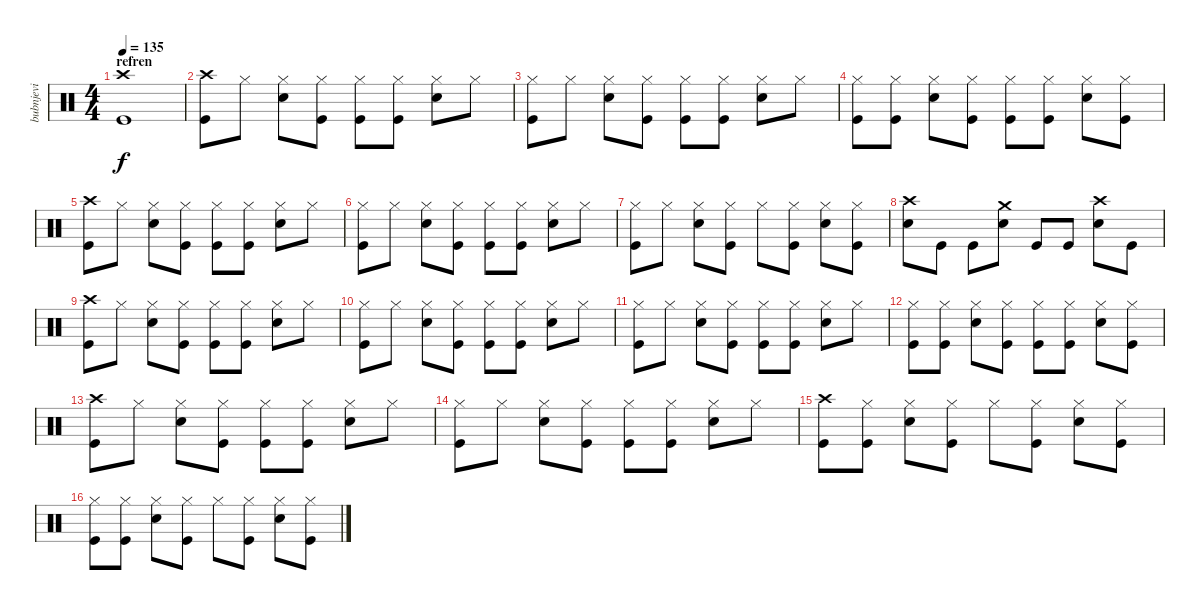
\track ("bubnjevi" "bubnjevi") {instrument percussion}
\staff {score}
\articulation defaults
\ts (4 4)
\section ("" "refren")
\tempo 135
\clef neutral
\ks c
("Crash high (hit)" "Kick (hit)").1{dy f} |
("Crash high (hit)" "Kick (hit)").8 "Hi-Hat (closed)".8 ("Hi-Hat (closed)" "Electric Snare (hit)").8 ("Hi-Hat (closed)" "Kick (hit)").8 ("Hi-Hat (closed)" "Kick (hit)").8 ("Hi-Hat (closed)" "Kick (hit)").8 ("Hi-Hat (closed)" "Electric Snare (hit)").8 "Hi-Hat (closed)".8 |
("Hi-Hat (closed)" "Kick (hit)").8 "Hi-Hat (closed)".8 ("Hi-Hat (closed)" "Electric Snare (hit)").8 ("Hi-Hat (closed)" "Kick (hit)").8 ("Hi-Hat (closed)" "Kick (hit)").8 ("Hi-Hat (closed)" "Kick (hit)").8 ("Hi-Hat (closed)" "Electric Snare (hit)").8 "Hi-Hat (closed)".8 |
("Hi-Hat (closed)" "Kick (hit)").8 ("Hi-Hat (closed)" "Kick (hit)").8 ("Hi-Hat (closed)" "Electric Snare (hit)").8 ("Hi-Hat (closed)" "Kick (hit)").8 ("Hi-Hat (closed)" "Kick (hit)").8 ("Hi-Hat (closed)" "Kick (hit)").8 ("Hi-Hat (closed)" "Electric Snare (hit)").8 ("Hi-Hat (closed)" "Kick (hit)").8 |
("Crash high (hit)" "Kick (hit)").8 "Hi-Hat (closed)".8 ("Hi-Hat (closed)" "Electric Snare (hit)").8 ("Hi-Hat (closed)" "Kick (hit)").8 ("Hi-Hat (closed)" "Kick (hit)").8 ("Hi-Hat (closed)" "Kick (hit)").8 ("Hi-Hat (closed)" "Electric Snare (hit)").8 "Hi-Hat (closed)".8 |
("Hi-Hat (closed)" "Kick (hit)").8 "Hi-Hat (closed)".8 ("Hi-Hat (closed)" "Electric Snare (hit)").8 ("Hi-Hat (closed)" "Kick (hit)").8 ("Hi-Hat (closed)" "Kick (hit)").8 ("Hi-Hat (closed)" "Kick (hit)").8 ("Hi-Hat (closed)" "Electric Snare (hit)").8 "Hi-Hat (closed)".8 |
("Hi-Hat (closed)" "Kick (hit)").8 "Hi-Hat (closed)".8 ("Hi-Hat (closed)" "Electric Snare (hit)").8 ("Hi-Hat (closed)" "Kick (hit)").8 "Hi-Hat (closed)".8 ("Hi-Hat (closed)" "Kick (hit)").8 ("Hi-Hat (closed)" "Electric Snare (hit)").8 ("Hi-Hat (closed)" "Kick (hit)").8 |
("Crash high (hit)" "Electric Snare (hit)").8 "Kick (hit)".8 "Kick (hit)".8 ("Crash medium (hit)" "Electric Snare (hit)").8 "Kick (hit)".8 "Kick (hit)".8 ("Crash high (hit)" "Electric Snare (hit)").8 "Kick (hit)".8 |
("Crash high (hit)" "Kick (hit)").8 "Hi-Hat (closed)".8 ("Hi-Hat (closed)" "Electric Snare (hit)").8 ("Hi-Hat (closed)" "Kick (hit)").8 ("Hi-Hat (closed)" "Kick (hit)").8 ("Hi-Hat (closed)" "Kick (hit)").8 ("Hi-Hat (closed)" "Electric Snare (hit)").8 "Hi-Hat (closed)".8 |
("Hi-Hat (closed)" "Kick (hit)").8 "Hi-Hat (closed)".8 ("Hi-Hat (closed)" "Electric Snare (hit)").8 ("Hi-Hat (closed)" "Kick (hit)").8 ("Hi-Hat (closed)" "Kick (hit)").8 ("Hi-Hat (closed)" "Kick (hit)").8 ("Hi-Hat (closed)" "Electric Snare (hit)").8 "Hi-Hat (closed)".8 |
("Hi-Hat (closed)" "Kick (hit)").8 "Hi-Hat (closed)".8 ("Hi-Hat (closed)" "Electric Snare (hit)").8 ("Hi-Hat (closed)" "Kick (hit)").8 ("Hi-Hat (closed)" "Kick (hit)").8 ("Hi-Hat (closed)" "Kick (hit)").8 ("Hi-Hat (closed)" "Electric Snare (hit)").8 "Hi-Hat (closed)".8 |
("Hi-Hat (closed)" "Kick (hit)").8 ("Hi-Hat (closed)" "Kick (hit)").8 ("Hi-Hat (closed)" "Electric Snare (hit)").8 ("Hi-Hat (closed)" "Kick (hit)").8 ("Hi-Hat (closed)" "Kick (hit)").8 ("Hi-Hat (closed)" "Kick (hit)").8 ("Hi-Hat (closed)" "Electric Snare (hit)").8 ("Hi-Hat (closed)" "Kick (hit)").8 |
("Crash high (hit)" "Kick (hit)").8 "Hi-Hat (closed)".8 ("Hi-Hat (closed)" "Electric Snare (hit)").8 ("Hi-Hat (closed)" "Kick (hit)").8 ("Hi-Hat (closed)" "Kick (hit)").8 ("Hi-Hat (closed)" "Kick (hit)").8 ("Hi-Hat (closed)" "Electric Snare (hit)").8 "Hi-Hat (closed)".8 |
("Hi-Hat (closed)" "Kick (hit)").8 "Hi-Hat (closed)".8 ("Hi-Hat (closed)" "Electric Snare (hit)").8 ("Hi-Hat (closed)" "Kick (hit)").8 ("Hi-Hat (closed)" "Kick (hit)").8 ("Hi-Hat (closed)" "Kick (hit)").8 ("Hi-Hat (closed)" "Electric Snare (hit)").8 "Hi-Hat (closed)".8 |
("Crash high (hit)" "Kick (hit)").8 ("Hi-Hat (closed)" "Kick (hit)").8 ("Hi-Hat (closed)" "Electric Snare (hit)").8 ("Hi-Hat (closed)" "Kick (hit)").8 "Hi-Hat (closed)".8 ("Hi-Hat (closed)" "Kick (hit)").8 ("Hi-Hat (closed)" "Electric Snare (hit)").8 ("Hi-Hat (closed)" "Kick (hit)").8 |
("Hi-Hat (closed)" "Kick (hit)").8 ("Hi-Hat (closed)" "Kick (hit)").8 ("Hi-Hat (closed)" "Electric Snare (hit)").8 ("Hi-Hat (closed)" "Kick (hit)").8 "Hi-Hat (closed)".8 ("Hi-Hat (closed)" "Kick (hit)").8 ("Hi-Hat (closed)" "Electric Snare (hit)").8 ("Hi-Hat (closed)" "Kick (hit)").8
